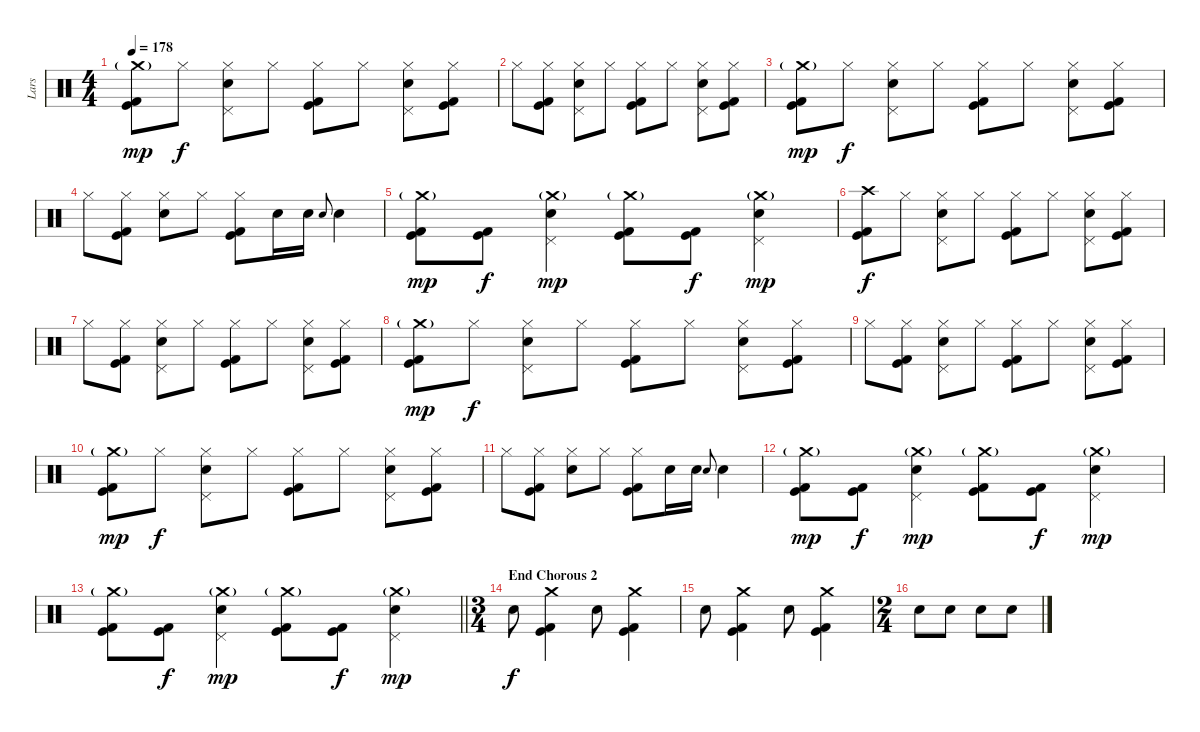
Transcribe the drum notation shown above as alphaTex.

\track ("Lars" "Lars") {instrument percussion}
\staff {score}
\articulation defaults
\ts (4 4)
\tempo 178
\clef neutral
\ks c
("Crash medium (hit)"{g} "Kick (hit)" "Kick (hit) 2").8{dy mp} "Hi-Hat (closed)".8{dy f} ("Hi-Hat (closed)" "Pedal Hi-Hat (hit)" "Electric Snare (hit)").8 "Hi-Hat (closed)".8 ("Hi-Hat (closed)" "Kick (hit)" "Kick (hit) 2").8 "Hi-Hat (closed)".8 ("Hi-Hat (closed)" "Pedal Hi-Hat (hit)" "Electric Snare (hit)").8 ("Hi-Hat (closed)" "Kick (hit)" "Kick (hit) 2").8 |
"Hi-Hat (closed)".8 ("Hi-Hat (closed)" "Kick (hit)" "Kick (hit) 2").8 ("Hi-Hat (closed)" "Pedal Hi-Hat (hit)" "Electric Snare (hit)").8 "Hi-Hat (closed)".8 ("Hi-Hat (closed)" "Kick (hit)" "Kick (hit) 2").8 "Hi-Hat (closed)".8 ("Hi-Hat (closed)" "Pedal Hi-Hat (hit)" "Electric Snare (hit)").8 ("Hi-Hat (closed)" "Kick (hit)" "Kick (hit) 2").8 |
("Crash medium (hit)"{g} "Kick (hit)" "Kick (hit) 2").8{dy mp} "Hi-Hat (closed)".8{dy f} ("Hi-Hat (closed)" "Pedal Hi-Hat (hit)" "Electric Snare (hit)").8 "Hi-Hat (closed)".8 ("Hi-Hat (closed)" "Kick (hit)" "Kick (hit) 2").8 "Hi-Hat (closed)".8 ("Hi-Hat (closed)" "Pedal Hi-Hat (hit)" "Electric Snare (hit)").8 ("Hi-Hat (closed)" "Kick (hit)" "Kick (hit) 2").8 |
"Hi-Hat (closed)".8 ("Hi-Hat (closed)" "Kick (hit)" "Kick (hit) 2").8 ("Hi-Hat (closed)" "Electric Snare (hit)").8 "Hi-Hat (closed)".8 ("Hi-Hat (closed)" "Kick (hit)" "Kick (hit) 2").8 "Electric Snare (hit)".16 "Electric Snare (hit)".16 "Electric Snare (hit)".8{gr onbeat} "Electric Snare (hit)".4 |
("Crash medium (hit)"{g} "Kick (hit)" "Kick (hit) 2").8{dy mp} ("Kick (hit)" "Kick (hit) 2").8{dy f} ("Crash medium (hit)"{g} "Pedal Hi-Hat (hit)" "Electric Snare (hit)").4{dy mp} ("Crash medium (hit)"{g} "Kick (hit)" "Kick (hit) 2").8 ("Kick (hit)" "Kick (hit) 2").8{dy f} ("Crash medium (hit)"{g} "Pedal Hi-Hat (hit)" "Electric Snare (hit)").4{dy mp} |
("Crash high (hit)" "Kick (hit)" "Kick (hit) 2").8{dy f} "Hi-Hat (closed)".8 ("Hi-Hat (closed)" "Pedal Hi-Hat (hit)" "Electric Snare (hit)").8 "Hi-Hat (closed)".8 ("Hi-Hat (closed)" "Kick (hit)" "Kick (hit) 2").8 "Hi-Hat (closed)".8 ("Hi-Hat (closed)" "Pedal Hi-Hat (hit)" "Electric Snare (hit)").8 ("Hi-Hat (closed)" "Kick (hit)" "Kick (hit) 2").8 |
"Hi-Hat (closed)".8 ("Hi-Hat (closed)" "Kick (hit)" "Kick (hit) 2").8 ("Hi-Hat (closed)" "Pedal Hi-Hat (hit)" "Electric Snare (hit)").8 "Hi-Hat (closed)".8 ("Hi-Hat (closed)" "Kick (hit)" "Kick (hit) 2").8 "Hi-Hat (closed)".8 ("Hi-Hat (closed)" "Pedal Hi-Hat (hit)" "Electric Snare (hit)").8 ("Hi-Hat (closed)" "Kick (hit)" "Kick (hit) 2").8 |
("Crash medium (hit)"{g} "Kick (hit)" "Kick (hit) 2").8{dy mp} "Hi-Hat (closed)".8{dy f} ("Hi-Hat (closed)" "Pedal Hi-Hat (hit)" "Electric Snare (hit)").8 "Hi-Hat (closed)".8 ("Hi-Hat (closed)" "Kick (hit)" "Kick (hit) 2").8 "Hi-Hat (closed)".8 ("Hi-Hat (closed)" "Pedal Hi-Hat (hit)" "Electric Snare (hit)").8 ("Hi-Hat (closed)" "Kick (hit)" "Kick (hit) 2").8 |
"Hi-Hat (closed)".8 ("Hi-Hat (closed)" "Kick (hit)" "Kick (hit) 2").8 ("Hi-Hat (closed)" "Pedal Hi-Hat (hit)" "Electric Snare (hit)").8 "Hi-Hat (closed)".8 ("Hi-Hat (closed)" "Kick (hit)" "Kick (hit) 2").8 "Hi-Hat (closed)".8 ("Hi-Hat (closed)" "Pedal Hi-Hat (hit)" "Electric Snare (hit)").8 ("Hi-Hat (closed)" "Kick (hit)" "Kick (hit) 2").8 |
("Crash medium (hit)"{g} "Kick (hit)" "Kick (hit) 2").8{dy mp} "Hi-Hat (closed)".8{dy f} ("Hi-Hat (closed)" "Pedal Hi-Hat (hit)" "Electric Snare (hit)").8 "Hi-Hat (closed)".8 ("Hi-Hat (closed)" "Kick (hit)" "Kick (hit) 2").8 "Hi-Hat (closed)".8 ("Hi-Hat (closed)" "Pedal Hi-Hat (hit)" "Electric Snare (hit)").8 ("Hi-Hat (closed)" "Kick (hit)" "Kick (hit) 2").8 |
"Hi-Hat (closed)".8 ("Hi-Hat (closed)" "Kick (hit)" "Kick (hit) 2").8 ("Hi-Hat (closed)" "Electric Snare (hit)").8 "Hi-Hat (closed)".8 ("Hi-Hat (closed)" "Kick (hit)" "Kick (hit) 2").8 "Electric Snare (hit)".16 "Electric Snare (hit)".16 "Electric Snare (hit)".8{gr onbeat} "Electric Snare (hit)".4 |
("Crash medium (hit)"{g} "Kick (hit)" "Kick (hit) 2").8{dy mp} ("Kick (hit)" "Kick (hit) 2").8{dy f} ("Crash medium (hit)"{g} "Pedal Hi-Hat (hit)" "Electric Snare (hit)").4{dy mp} ("Crash medium (hit)"{g} "Kick (hit)" "Kick (hit) 2").8 ("Kick (hit)" "Kick (hit) 2").8{dy f} ("Crash medium (hit)"{g} "Pedal Hi-Hat (hit)" "Electric Snare (hit)").4{dy mp} |
\barLineRight lightlight
("Crash medium (hit)"{g} "Kick (hit)" "Kick (hit) 2").8 ("Kick (hit)" "Kick (hit) 2").8{dy f} ("Crash medium (hit)"{g} "Pedal Hi-Hat (hit)" "Electric Snare (hit)").4{dy mp} ("Crash medium (hit)"{g} "Kick (hit)" "Kick (hit) 2").8 ("Kick (hit)" "Kick (hit) 2").8{dy f} ("Crash medium (hit)"{g} "Pedal Hi-Hat (hit)" "Electric Snare (hit)").4{dy mp} |
\ts (3 4)
\section ("" "End Chorous 2")
"Electric Snare (hit)".8{dy f} ("Crash medium (hit)" "Kick (hit)" "Kick (hit) 2").4 "Electric Snare (hit)".8 ("Crash medium (hit)" "Kick (hit)" "Kick (hit) 2").4 |
"Electric Snare (hit)".8 ("Crash medium (hit)" "Kick (hit)" "Kick (hit) 2").4 "Electric Snare (hit)".8 ("Crash medium (hit)" "Kick (hit)" "Kick (hit) 2").4 |
\ts (2 4)
"Electric Snare (hit)".8 "Electric Snare (hit)".8 "Electric Snare (hit)".8 "Electric Snare (hit)".8
